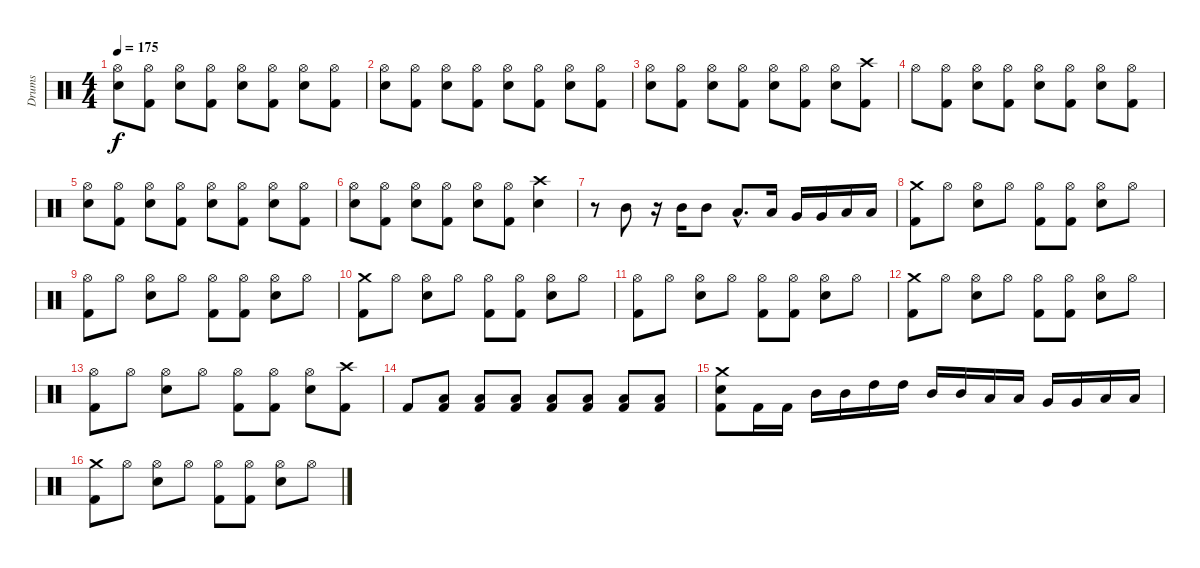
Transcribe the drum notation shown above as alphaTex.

\track ("Drums" "Drums") {instrument percussion}
\staff {score}
\articulation defaults
\ts (4 4)
\tempo 175
\clef neutral
\ks c
("Hi-Hat (open)" "Snare (hit) 2").8{dy f} ("Hi-Hat (open)" "Kick (hit) 2").8 ("Hi-Hat (open)" "Snare (hit) 2").8 ("Hi-Hat (open)" "Kick (hit) 2").8 ("Hi-Hat (open)" "Snare (hit) 2").8 ("Hi-Hat (open)" "Kick (hit) 2").8 ("Hi-Hat (open)" "Snare (hit) 2").8 ("Hi-Hat (open)" "Kick (hit) 2").8 |
("Hi-Hat (open)" "Snare (hit) 2").8 ("Hi-Hat (open)" "Kick (hit) 2").8 ("Hi-Hat (open)" "Snare (hit) 2").8 ("Hi-Hat (open)" "Kick (hit) 2").8 ("Hi-Hat (open)" "Snare (hit) 2").8 ("Hi-Hat (open)" "Kick (hit) 2").8 ("Hi-Hat (open)" "Snare (hit) 2").8 ("Hi-Hat (open)" "Kick (hit) 2").8 |
("Hi-Hat (open)" "Snare (hit) 2").8 ("Hi-Hat (open)" "Kick (hit) 2").8 ("Hi-Hat (open)" "Snare (hit) 2").8 ("Hi-Hat (open)" "Kick (hit) 2").8 ("Hi-Hat (open)" "Snare (hit) 2").8 ("Hi-Hat (open)" "Kick (hit) 2").8 ("Hi-Hat (open)" "Snare (hit) 2").8 ("Crash high (hit)" "Kick (hit) 2").8 |
"Hi-Hat (open)".8 ("Hi-Hat (open)" "Kick (hit) 2").8 ("Hi-Hat (open)" "Snare (hit) 2").8 ("Hi-Hat (open)" "Kick (hit) 2").8 ("Hi-Hat (open)" "Snare (hit) 2").8 ("Hi-Hat (open)" "Kick (hit) 2").8 ("Hi-Hat (open)" "Snare (hit) 2").8 ("Hi-Hat (open)" "Kick (hit) 2").8 |
("Hi-Hat (open)" "Snare (hit) 2").8 ("Hi-Hat (open)" "Kick (hit) 2").8 ("Hi-Hat (open)" "Snare (hit) 2").8 ("Hi-Hat (open)" "Kick (hit) 2").8 ("Hi-Hat (open)" "Snare (hit) 2").8 ("Hi-Hat (open)" "Kick (hit) 2").8 ("Hi-Hat (open)" "Snare (hit) 2").8 ("Hi-Hat (open)" "Kick (hit) 2").8 |
("Hi-Hat (open)" "Snare (hit) 2").8 ("Hi-Hat (open)" "Kick (hit) 2").8 ("Hi-Hat (open)" "Snare (hit) 2").8 ("Hi-Hat (open)" "Kick (hit) 2").8 ("Hi-Hat (open)" "Snare (hit) 2").8 ("Hi-Hat (open)" "Kick (hit) 2").8 ("Crash high (hit)" "Snare (hit) 2").4 |
r.8 "Mid Tom (hit)".8 r.16 "Mid Tom (hit)".16 "Mid Tom (hit)".8 "Low Tom (hit)"{hac}.8{d} "Low Tom (hit)".16 "Very Low Tom (hit)".16 "Very Low Tom (hit)".16 "Low Floor Tom (hit)".16 "Low Floor Tom (hit)".16 |
("Crash medium (hit)" "Kick (hit) 2").8 "Hi-Hat (open)".8 ("Hi-Hat (open)" "Snare (hit) 2").8 "Hi-Hat (open)".8 ("Hi-Hat (open)" "Kick (hit) 2").8 ("Hi-Hat (open)" "Kick (hit) 2").8 ("Hi-Hat (open)" "Snare (hit) 2").8 "Hi-Hat (open)".8 |
("Hi-Hat (open)" "Kick (hit) 2").8 "Hi-Hat (open)".8 ("Hi-Hat (open)" "Snare (hit) 2").8 "Hi-Hat (open)".8 ("Hi-Hat (open)" "Kick (hit) 2").8 ("Hi-Hat (open)" "Kick (hit) 2").8 ("Hi-Hat (open)" "Snare (hit) 2").8 "Hi-Hat (open)".8 |
("Crash medium (hit)" "Kick (hit) 2").8 "Hi-Hat (open)".8 ("Hi-Hat (open)" "Snare (hit) 2").8 "Hi-Hat (open)".8 ("Hi-Hat (open)" "Kick (hit) 2").8 ("Hi-Hat (open)" "Kick (hit) 2").8 ("Hi-Hat (open)" "Snare (hit) 2").8 "Hi-Hat (open)".8 |
("Hi-Hat (open)" "Kick (hit) 2").8 "Hi-Hat (open)".8 ("Hi-Hat (open)" "Snare (hit) 2").8 "Hi-Hat (open)".8 ("Hi-Hat (open)" "Kick (hit) 2").8 ("Hi-Hat (open)" "Kick (hit) 2").8 ("Hi-Hat (open)" "Snare (hit) 2").8 "Hi-Hat (open)".8 |
("Crash medium (hit)" "Kick (hit) 2").8 "Hi-Hat (open)".8 ("Hi-Hat (open)" "Snare (hit) 2").8 "Hi-Hat (open)".8 ("Hi-Hat (open)" "Kick (hit) 2").8 ("Hi-Hat (open)" "Kick (hit) 2").8 ("Hi-Hat (open)" "Snare (hit) 2").8 "Hi-Hat (open)".8 |
("Hi-Hat (open)" "Kick (hit) 2").8 "Hi-Hat (open)".8 ("Hi-Hat (open)" "Snare (hit) 2").8 "Hi-Hat (open)".8 ("Hi-Hat (open)" "Kick (hit) 2").8 ("Hi-Hat (open)" "Kick (hit) 2").8 ("Hi-Hat (open)" "Snare (hit) 2").8 ("Crash high (hit)" "Kick (hit) 2").8 |
"Kick (hit) 2".8 ("Low Floor Tom (hit)" "Kick (hit) 2").8 ("Low Floor Tom (hit)" "Kick (hit) 2").8 ("Low Floor Tom (hit)" "Kick (hit) 2").8 ("Low Floor Tom (hit)" "Kick (hit) 2").8 ("Low Floor Tom (hit)" "Kick (hit) 2").8 ("Low Floor Tom (hit)" "Kick (hit) 2").8 ("Low Floor Tom (hit)" "Kick (hit) 2").8 |
("Crash medium (hit)" "Snare (hit) 2" "Kick (hit) 2").8 "Kick (hit) 2".16 "Kick (hit) 2".16 "Mid Tom (hit)".16 "Mid Tom (hit)".16 "High Tom (hit)".16 "High Tom (hit)".16 "Mid Tom (hit)".16 "Mid Tom (hit)".16 "Low Tom (hit)".16 "Low Tom (hit)".16 "Very Low Tom (hit)".16 "Very Low Tom (hit)".16 "Low Floor Tom (hit)".16 "Low Floor Tom (hit)".16 |
("Crash medium (hit)" "Kick (hit) 2").8 "Hi-Hat (open)".8 ("Hi-Hat (open)" "Snare (hit) 2").8 "Hi-Hat (open)".8 ("Hi-Hat (open)" "Kick (hit) 2").8 ("Hi-Hat (open)" "Kick (hit) 2").8 ("Hi-Hat (open)" "Snare (hit) 2").8 "Hi-Hat (open)".8
